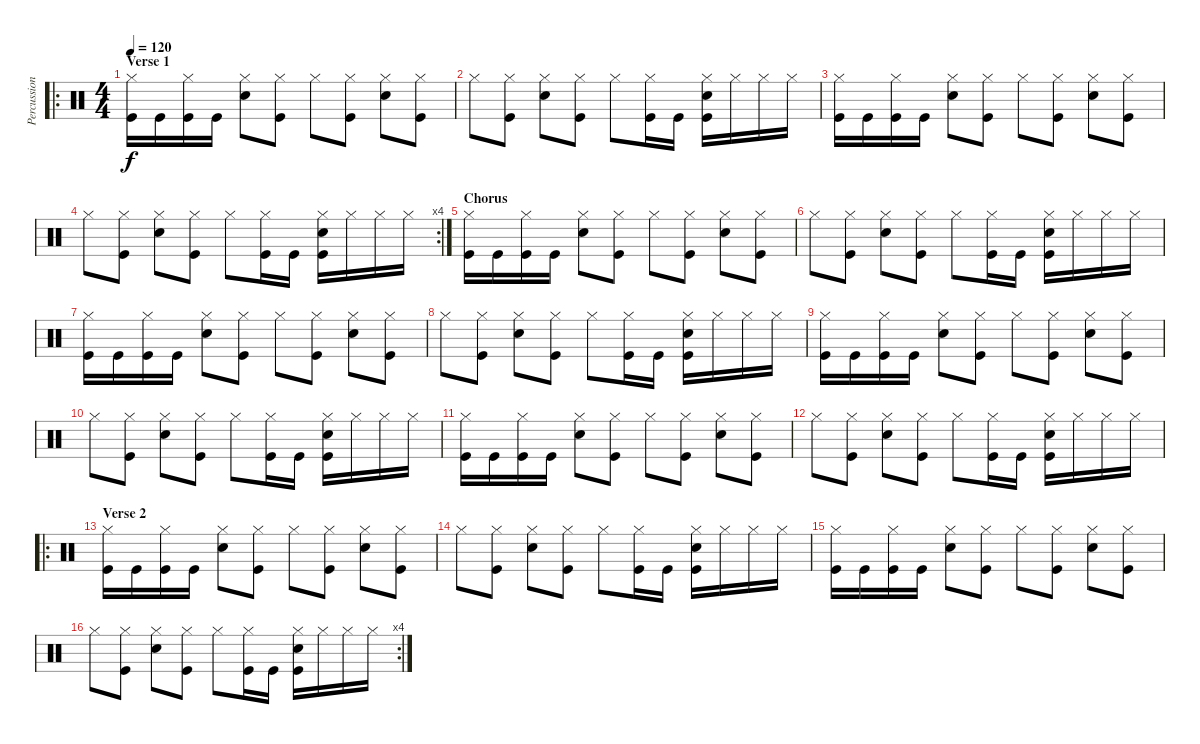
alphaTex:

\track ("Percussion" "Percussion") {instrument percussion}
\staff {score}
\articulation defaults
\ro
\ts (4 4)
\section ("" "Verse 1")
\tempo 120
\clef neutral
\ks c
("Kick (hit)" "Hi-Hat (closed)").16{dy f} "Kick (hit)".16 ("Kick (hit)" "Hi-Hat (closed)").16 "Kick (hit)".16 ("Hi-Hat (closed)" "Hand Clap (hit)").8 ("Kick (hit)" "Hi-Hat (closed)").8 "Hi-Hat (closed)".8 ("Kick (hit)" "Hi-Hat (closed)").8 ("Hi-Hat (closed)" "Hand Clap (hit)").8 ("Kick (hit)" "Hi-Hat (closed)").8 |
"Hi-Hat (closed)".8 ("Kick (hit)" "Hi-Hat (closed)").8 ("Hi-Hat (closed)" "Hand Clap (hit)").8 ("Kick (hit)" "Hi-Hat (closed)").8 "Hi-Hat (closed)".8 ("Kick (hit)" "Hi-Hat (closed)").16 "Kick (hit)".16 ("Kick (hit)" "Hi-Hat (closed)" "Hand Clap (hit)").16 "Hi-Hat (closed)".16 "Hi-Hat (closed)".16 "Hi-Hat (closed)".16 |
("Kick (hit)" "Hi-Hat (closed)").16 "Kick (hit)".16 ("Kick (hit)" "Hi-Hat (closed)").16 "Kick (hit)".16 ("Hi-Hat (closed)" "Hand Clap (hit)").8 ("Kick (hit)" "Hi-Hat (closed)").8 "Hi-Hat (closed)".8 ("Kick (hit)" "Hi-Hat (closed)").8 ("Hi-Hat (closed)" "Hand Clap (hit)").8 ("Kick (hit)" "Hi-Hat (closed)").8 |
\rc 4 "Hi-Hat (closed)".8
("Kick (hit)" "Hi-Hat (closed)").8 ("Hi-Hat (closed)" "Hand Clap (hit)").8 ("Kick (hit)" "Hi-Hat (closed)").8 "Hi-Hat (closed)".8 ("Kick (hit)" "Hi-Hat (closed)").16 "Kick (hit)".16 ("Kick (hit)" "Hi-Hat (closed)" "Hand Clap (hit)").16 "Hi-Hat (closed)".16 "Hi-Hat (closed)".16 "Hi-Hat (closed)".16 |
\section ("" "Chorus")
("Kick (hit)" "Hi-Hat (closed)").16 "Kick (hit)".16 ("Kick (hit)" "Hi-Hat (closed)").16 "Kick (hit)".16 ("Hi-Hat (closed)" "Hand Clap (hit)").8 ("Kick (hit)" "Hi-Hat (closed)").8 "Hi-Hat (closed)".8 ("Kick (hit)" "Hi-Hat (closed)").8 ("Hi-Hat (closed)" "Hand Clap (hit)").8 ("Kick (hit)" "Hi-Hat (closed)").8 |
"Hi-Hat (closed)".8 ("Kick (hit)" "Hi-Hat (closed)").8 ("Hi-Hat (closed)" "Hand Clap (hit)").8 ("Kick (hit)" "Hi-Hat (closed)").8 "Hi-Hat (closed)".8 ("Kick (hit)" "Hi-Hat (closed)").16 "Kick (hit)".16 ("Kick (hit)" "Hi-Hat (closed)" "Hand Clap (hit)").16 "Hi-Hat (closed)".16 "Hi-Hat (closed)".16 "Hi-Hat (closed)".16 |
("Kick (hit)" "Hi-Hat (closed)").16 "Kick (hit)".16 ("Kick (hit)" "Hi-Hat (closed)").16 "Kick (hit)".16 ("Hi-Hat (closed)" "Hand Clap (hit)").8 ("Kick (hit)" "Hi-Hat (closed)").8 "Hi-Hat (closed)".8 ("Kick (hit)" "Hi-Hat (closed)").8 ("Hi-Hat (closed)" "Hand Clap (hit)").8 ("Kick (hit)" "Hi-Hat (closed)").8 |
"Hi-Hat (closed)".8 ("Kick (hit)" "Hi-Hat (closed)").8 ("Hi-Hat (closed)" "Hand Clap (hit)").8 ("Kick (hit)" "Hi-Hat (closed)").8 "Hi-Hat (closed)".8 ("Kick (hit)" "Hi-Hat (closed)").16 "Kick (hit)".16 ("Kick (hit)" "Hi-Hat (closed)" "Hand Clap (hit)").16 "Hi-Hat (closed)".16 "Hi-Hat (closed)".16 "Hi-Hat (closed)".16 |
("Kick (hit)" "Hi-Hat (closed)").16 "Kick (hit)".16 ("Kick (hit)" "Hi-Hat (closed)").16 "Kick (hit)".16 ("Hi-Hat (closed)" "Hand Clap (hit)").8 ("Kick (hit)" "Hi-Hat (closed)").8 "Hi-Hat (closed)".8 ("Kick (hit)" "Hi-Hat (closed)").8 ("Hi-Hat (closed)" "Hand Clap (hit)").8 ("Kick (hit)" "Hi-Hat (closed)").8 |
"Hi-Hat (closed)".8 ("Kick (hit)" "Hi-Hat (closed)").8 ("Hi-Hat (closed)" "Hand Clap (hit)").8 ("Kick (hit)" "Hi-Hat (closed)").8 "Hi-Hat (closed)".8 ("Kick (hit)" "Hi-Hat (closed)").16 "Kick (hit)".16 ("Kick (hit)" "Hi-Hat (closed)" "Hand Clap (hit)").16 "Hi-Hat (closed)".16 "Hi-Hat (closed)".16 "Hi-Hat (closed)".16 |
("Kick (hit)" "Hi-Hat (closed)").16 "Kick (hit)".16 ("Kick (hit)" "Hi-Hat (closed)").16 "Kick (hit)".16 ("Hi-Hat (closed)" "Hand Clap (hit)").8 ("Kick (hit)" "Hi-Hat (closed)").8 "Hi-Hat (closed)".8 ("Kick (hit)" "Hi-Hat (closed)").8 ("Hi-Hat (closed)" "Hand Clap (hit)").8 ("Kick (hit)" "Hi-Hat (closed)").8 |
"Hi-Hat (closed)".8 ("Kick (hit)" "Hi-Hat (closed)").8 ("Hi-Hat (closed)" "Hand Clap (hit)").8 ("Kick (hit)" "Hi-Hat (closed)").8 "Hi-Hat (closed)".8 ("Kick (hit)" "Hi-Hat (closed)").16 "Kick (hit)".16 ("Kick (hit)" "Hi-Hat (closed)" "Hand Clap (hit)").16 "Hi-Hat (closed)".16 "Hi-Hat (closed)".16 "Hi-Hat (closed)".16 |
\ro
\section ("" "Verse 2")
("Kick (hit)" "Hi-Hat (closed)").16 "Kick (hit)".16 ("Kick (hit)" "Hi-Hat (closed)").16 "Kick (hit)".16 ("Hi-Hat (closed)" "Hand Clap (hit)").8 ("Kick (hit)" "Hi-Hat (closed)").8 "Hi-Hat (closed)".8 ("Kick (hit)" "Hi-Hat (closed)").8 ("Hi-Hat (closed)" "Hand Clap (hit)").8 ("Kick (hit)" "Hi-Hat (closed)").8 |
"Hi-Hat (closed)".8 ("Kick (hit)" "Hi-Hat (closed)").8 ("Hi-Hat (closed)" "Hand Clap (hit)").8 ("Kick (hit)" "Hi-Hat (closed)").8 "Hi-Hat (closed)".8 ("Kick (hit)" "Hi-Hat (closed)").16 "Kick (hit)".16 ("Kick (hit)" "Hi-Hat (closed)" "Hand Clap (hit)").16 "Hi-Hat (closed)".16 "Hi-Hat (closed)".16 "Hi-Hat (closed)".16 |
("Kick (hit)" "Hi-Hat (closed)").16 "Kick (hit)".16 ("Kick (hit)" "Hi-Hat (closed)").16 "Kick (hit)".16 ("Hi-Hat (closed)" "Hand Clap (hit)").8 ("Kick (hit)" "Hi-Hat (closed)").8 "Hi-Hat (closed)".8 ("Kick (hit)" "Hi-Hat (closed)").8 ("Hi-Hat (closed)" "Hand Clap (hit)").8 ("Kick (hit)" "Hi-Hat (closed)").8 |
\rc 4 "Hi-Hat (closed)".8
("Kick (hit)" "Hi-Hat (closed)").8 ("Hi-Hat (closed)" "Hand Clap (hit)").8 ("Kick (hit)" "Hi-Hat (closed)").8 "Hi-Hat (closed)".8 ("Kick (hit)" "Hi-Hat (closed)").16 "Kick (hit)".16 ("Kick (hit)" "Hi-Hat (closed)" "Hand Clap (hit)").16 "Hi-Hat (closed)".16 "Hi-Hat (closed)".16 "Hi-Hat (closed)".16
